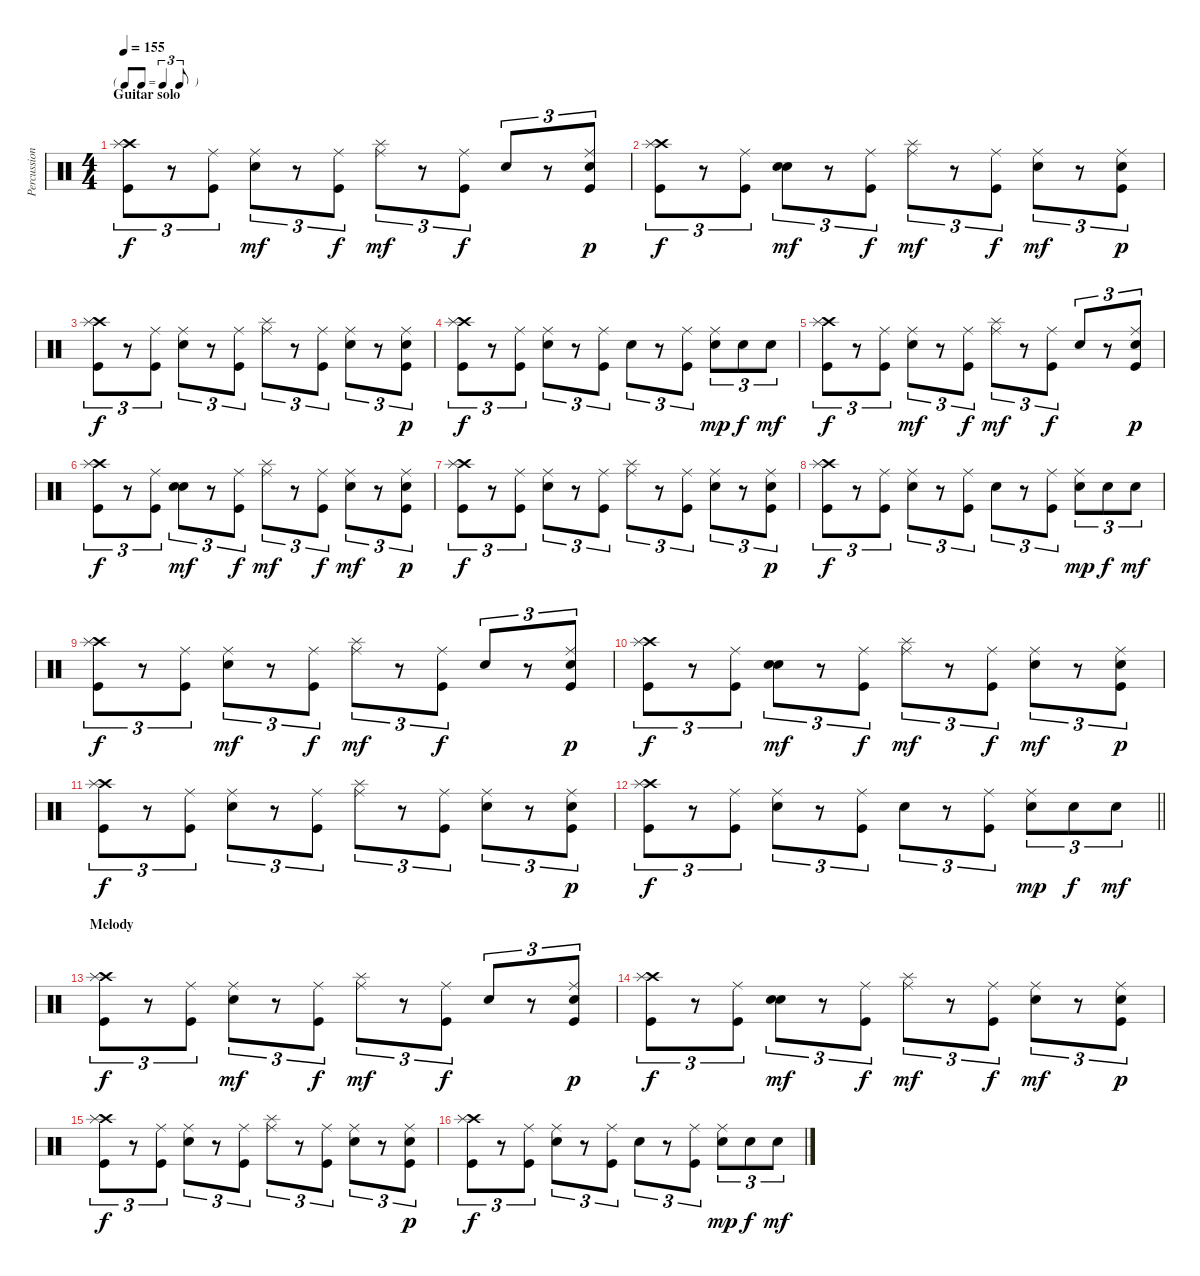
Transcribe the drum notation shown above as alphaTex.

\track ("Percussion" "Percussion") {instrument percussion}
\staff {score}
\articulation defaults
\ts (4 4)
\tf triplet8th
\section ("" "Guitar solo")
\tempo 155
\clef neutral
\ks c
("Crash high (hit)" "Splash (hit)" "Kick (hit)").8{tu (3 2) dy f} r.8{tu (3 2)} ("Ride (middle)" "Kick (hit)").8{tu (3 2)} ("Ride (middle)" "Electric Snare (hit)").8{tu (3 2) dy mf} r.8{tu (3 2)} ("Ride (middle)" "Kick (hit)").8{tu (3 2) dy f} ("Ride (middle)" "Splash (hit)").8{tu (3 2) dy mf} r.8{tu (3 2)} ("Ride (middle)" "Kick (hit)").8{tu (3 2) dy f} "Electric Snare (hit)".8{tu (3 2)} r.8{tu (3 2)} ("Ride (middle)" "Electric Snare (hit)" "Kick (hit)").8{tu (3 2) dy p} |
("Crash high (hit)" "Splash (hit)" "Kick (hit)").8{tu (3 2) dy f} r.8{tu (3 2)} ("Ride (middle)" "Kick (hit)").8{tu (3 2)} ("Snare (hit)" "Electric Snare (hit)").8{tu (3 2) dy mf} r.8{tu (3 2)} ("Ride (middle)" "Kick (hit)").8{tu (3 2) dy f} ("Ride (middle)" "Splash (hit)").8{tu (3 2) dy mf} r.8{tu (3 2)} ("Ride (middle)" "Kick (hit)").8{tu (3 2) dy f} ("Ride (middle)" "Electric Snare (hit)").8{tu (3 2) dy mf} r.8{tu (3 2)} ("Ride (middle)" "Electric Snare (hit)" "Kick (hit)").8{tu (3 2) dy p} |
("Crash high (hit)" "Splash (hit)" "Kick (hit)").8{tu (3 2) dy f} r.8{tu (3 2)} ("Ride (middle)" "Kick (hit)").8{tu (3 2)} ("Ride (middle)" "Electric Snare (hit)").8{tu (3 2)} r.8{tu (3 2)} ("Ride (middle)" "Kick (hit)").8{tu (3 2)} ("Ride (middle)" "Splash (hit)").8{tu (3 2)} r.8{tu (3 2)} ("Ride (middle)" "Kick (hit)").8{tu (3 2)} ("Ride (middle)" "Electric Snare (hit)").8{tu (3 2)} r.8{tu (3 2)} ("Ride (middle)" "Electric Snare (hit)" "Kick (hit)").8{tu (3 2) dy p} |
("Crash high (hit)" "Splash (hit)" "Kick (hit)").8{tu (3 2) dy f} r.8{tu (3 2)} ("Ride (middle)" "Kick (hit)").8{tu (3 2)} ("Ride (middle)" "Electric Snare (hit)").8{tu (3 2)} r.8{tu (3 2)} ("Ride (middle)" "Kick (hit)").8{tu (3 2)} "Electric Snare (hit)".8{tu (3 2)} r.8{tu (3 2)} ("Ride (middle)" "Kick (hit)").8{tu (3 2)} ("Ride (middle)" "Electric Snare (hit)").8{tu (3 2) dy mp} "Electric Snare (hit)".8{tu (3 2) dy f} "Electric Snare (hit)".8{tu (3 2) dy mf} |
("Crash high (hit)" "Splash (hit)" "Kick (hit)").8{tu (3 2) dy f} r.8{tu (3 2)} ("Ride (middle)" "Kick (hit)").8{tu (3 2)} ("Ride (middle)" "Electric Snare (hit)").8{tu (3 2) dy mf} r.8{tu (3 2)} ("Ride (middle)" "Kick (hit)").8{tu (3 2) dy f} ("Ride (middle)" "Splash (hit)").8{tu (3 2) dy mf} r.8{tu (3 2)} ("Ride (middle)" "Kick (hit)").8{tu (3 2) dy f} "Electric Snare (hit)".8{tu (3 2)} r.8{tu (3 2)} ("Ride (middle)" "Electric Snare (hit)" "Kick (hit)").8{tu (3 2) dy p} |
("Crash high (hit)" "Splash (hit)" "Kick (hit)").8{tu (3 2) dy f} r.8{tu (3 2)} ("Ride (middle)" "Kick (hit)").8{tu (3 2)} ("Snare (hit)" "Electric Snare (hit)").8{tu (3 2) dy mf} r.8{tu (3 2)} ("Ride (middle)" "Kick (hit)").8{tu (3 2) dy f} ("Ride (middle)" "Splash (hit)").8{tu (3 2) dy mf} r.8{tu (3 2)} ("Ride (middle)" "Kick (hit)").8{tu (3 2) dy f} ("Ride (middle)" "Electric Snare (hit)").8{tu (3 2) dy mf} r.8{tu (3 2)} ("Ride (middle)" "Electric Snare (hit)" "Kick (hit)").8{tu (3 2) dy p} |
("Crash high (hit)" "Splash (hit)" "Kick (hit)").8{tu (3 2) dy f} r.8{tu (3 2)} ("Ride (middle)" "Kick (hit)").8{tu (3 2)} ("Ride (middle)" "Electric Snare (hit)").8{tu (3 2)} r.8{tu (3 2)} ("Ride (middle)" "Kick (hit)").8{tu (3 2)} ("Ride (middle)" "Splash (hit)").8{tu (3 2)} r.8{tu (3 2)} ("Ride (middle)" "Kick (hit)").8{tu (3 2)} ("Ride (middle)" "Electric Snare (hit)").8{tu (3 2)} r.8{tu (3 2)} ("Ride (middle)" "Electric Snare (hit)" "Kick (hit)").8{tu (3 2) dy p} |
("Crash high (hit)" "Splash (hit)" "Kick (hit)").8{tu (3 2) dy f} r.8{tu (3 2)} ("Ride (middle)" "Kick (hit)").8{tu (3 2)} ("Ride (middle)" "Electric Snare (hit)").8{tu (3 2)} r.8{tu (3 2)} ("Ride (middle)" "Kick (hit)").8{tu (3 2)} "Electric Snare (hit)".8{tu (3 2)} r.8{tu (3 2)} ("Ride (middle)" "Kick (hit)").8{tu (3 2)} ("Ride (middle)" "Electric Snare (hit)").8{tu (3 2) dy mp} "Electric Snare (hit)".8{tu (3 2) dy f} "Electric Snare (hit)".8{tu (3 2) dy mf} |
("Crash high (hit)" "Splash (hit)" "Kick (hit)").8{tu (3 2) dy f} r.8{tu (3 2)} ("Ride (middle)" "Kick (hit)").8{tu (3 2)} ("Ride (middle)" "Electric Snare (hit)").8{tu (3 2) dy mf} r.8{tu (3 2)} ("Ride (middle)" "Kick (hit)").8{tu (3 2) dy f} ("Ride (middle)" "Splash (hit)").8{tu (3 2) dy mf} r.8{tu (3 2)} ("Ride (middle)" "Kick (hit)").8{tu (3 2) dy f} "Electric Snare (hit)".8{tu (3 2)} r.8{tu (3 2)} ("Ride (middle)" "Electric Snare (hit)" "Kick (hit)").8{tu (3 2) dy p} |
("Crash high (hit)" "Splash (hit)" "Kick (hit)").8{tu (3 2) dy f} r.8{tu (3 2)} ("Ride (middle)" "Kick (hit)").8{tu (3 2)} ("Snare (hit)" "Electric Snare (hit)").8{tu (3 2) dy mf} r.8{tu (3 2)} ("Ride (middle)" "Kick (hit)").8{tu (3 2) dy f} ("Ride (middle)" "Splash (hit)").8{tu (3 2) dy mf} r.8{tu (3 2)} ("Ride (middle)" "Kick (hit)").8{tu (3 2) dy f} ("Ride (middle)" "Electric Snare (hit)").8{tu (3 2) dy mf} r.8{tu (3 2)} ("Ride (middle)" "Electric Snare (hit)" "Kick (hit)").8{tu (3 2) dy p} |
("Crash high (hit)" "Splash (hit)" "Kick (hit)").8{tu (3 2) dy f} r.8{tu (3 2)} ("Ride (middle)" "Kick (hit)").8{tu (3 2)} ("Ride (middle)" "Electric Snare (hit)").8{tu (3 2)} r.8{tu (3 2)} ("Ride (middle)" "Kick (hit)").8{tu (3 2)} ("Ride (middle)" "Splash (hit)").8{tu (3 2)} r.8{tu (3 2)} ("Ride (middle)" "Kick (hit)").8{tu (3 2)} ("Ride (middle)" "Electric Snare (hit)").8{tu (3 2)} r.8{tu (3 2)} ("Ride (middle)" "Electric Snare (hit)" "Kick (hit)").8{tu (3 2) dy p} |
\barLineRight lightlight
("Crash high (hit)" "Splash (hit)" "Kick (hit)").8{tu (3 2) dy f} r.8{tu (3 2)} ("Ride (middle)" "Kick (hit)").8{tu (3 2)} ("Ride (middle)" "Electric Snare (hit)").8{tu (3 2)} r.8{tu (3 2)} ("Ride (middle)" "Kick (hit)").8{tu (3 2)} "Electric Snare (hit)".8{tu (3 2)} r.8{tu (3 2)} ("Ride (middle)" "Kick (hit)").8{tu (3 2)} ("Ride (middle)" "Electric Snare (hit)").8{tu (3 2) dy mp} "Electric Snare (hit)".8{tu (3 2) dy f} "Electric Snare (hit)".8{tu (3 2) dy mf} |
\section ("" "Melody")
("Crash high (hit)" "Splash (hit)" "Kick (hit)").8{tu (3 2) dy f} r.8{tu (3 2)} ("Ride (middle)" "Kick (hit)").8{tu (3 2)} ("Ride (middle)" "Electric Snare (hit)").8{tu (3 2) dy mf} r.8{tu (3 2)} ("Ride (middle)" "Kick (hit)").8{tu (3 2) dy f} ("Ride (middle)" "Splash (hit)").8{tu (3 2) dy mf} r.8{tu (3 2)} ("Ride (middle)" "Kick (hit)").8{tu (3 2) dy f} "Electric Snare (hit)".8{tu (3 2)} r.8{tu (3 2)} ("Ride (middle)" "Electric Snare (hit)" "Kick (hit)").8{tu (3 2) dy p} |
("Crash high (hit)" "Splash (hit)" "Kick (hit)").8{tu (3 2) dy f} r.8{tu (3 2)} ("Ride (middle)" "Kick (hit)").8{tu (3 2)} ("Snare (hit)" "Electric Snare (hit)").8{tu (3 2) dy mf} r.8{tu (3 2)} ("Ride (middle)" "Kick (hit)").8{tu (3 2) dy f} ("Ride (middle)" "Splash (hit)").8{tu (3 2) dy mf} r.8{tu (3 2)} ("Ride (middle)" "Kick (hit)").8{tu (3 2) dy f} ("Ride (middle)" "Electric Snare (hit)").8{tu (3 2) dy mf} r.8{tu (3 2)} ("Ride (middle)" "Electric Snare (hit)" "Kick (hit)").8{tu (3 2) dy p} |
("Crash high (hit)" "Splash (hit)" "Kick (hit)").8{tu (3 2) dy f} r.8{tu (3 2)} ("Ride (middle)" "Kick (hit)").8{tu (3 2)} ("Ride (middle)" "Electric Snare (hit)").8{tu (3 2)} r.8{tu (3 2)} ("Ride (middle)" "Kick (hit)").8{tu (3 2)} ("Ride (middle)" "Splash (hit)").8{tu (3 2)} r.8{tu (3 2)} ("Ride (middle)" "Kick (hit)").8{tu (3 2)} ("Ride (middle)" "Electric Snare (hit)").8{tu (3 2)} r.8{tu (3 2)} ("Ride (middle)" "Electric Snare (hit)" "Kick (hit)").8{tu (3 2) dy p} |
("Crash high (hit)" "Splash (hit)" "Kick (hit)").8{tu (3 2) dy f} r.8{tu (3 2)} ("Ride (middle)" "Kick (hit)").8{tu (3 2)} ("Ride (middle)" "Electric Snare (hit)").8{tu (3 2)} r.8{tu (3 2)} ("Ride (middle)" "Kick (hit)").8{tu (3 2)} "Electric Snare (hit)".8{tu (3 2)} r.8{tu (3 2)} ("Ride (middle)" "Kick (hit)").8{tu (3 2)} ("Ride (middle)" "Electric Snare (hit)").8{tu (3 2) dy mp} "Electric Snare (hit)".8{tu (3 2) dy f} "Electric Snare (hit)".8{tu (3 2) dy mf}
